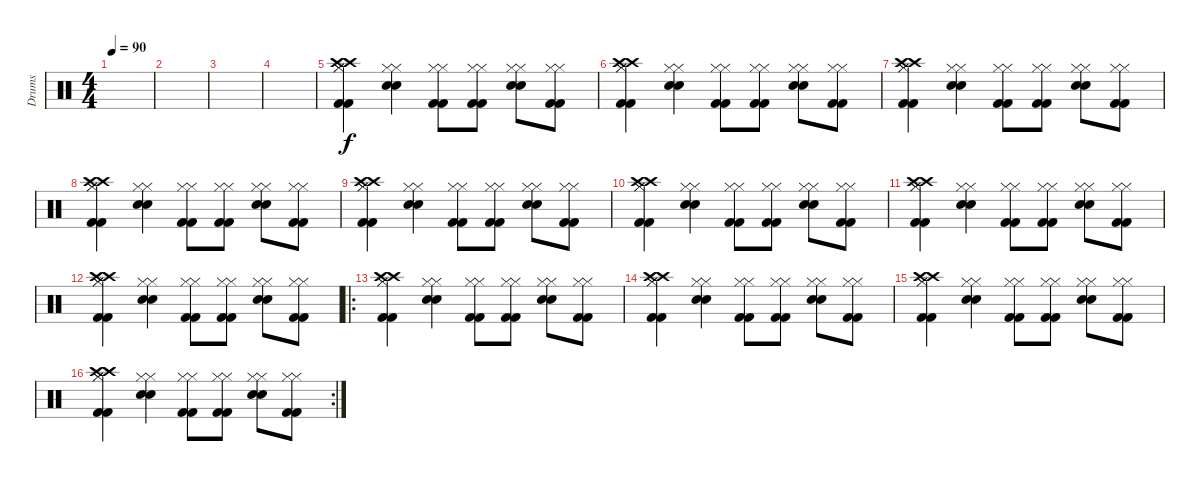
\track ("Drums" "Drums") {instrument percussion}
\staff {score}
\articulation defaults
\ts (4 4)
\tempo 90
\clef neutral
\ks c
|
|
|
|
("Crash high (hit)" "Crash high (hit)" "Hi-Hat (closed)" "Hi-Hat (closed)" "Kick (hit) 2" "Kick (hit) 2").4 ("Hi-Hat (closed)" "Hi-Hat (closed)" "Snare (hit) 2" "Snare (hit) 2").4 ("Hi-Hat (closed)" "Hi-Hat (closed)" "Kick (hit) 2" "Kick (hit) 2").8 ("Hi-Hat (closed)" "Hi-Hat (closed)" "Kick (hit) 2" "Kick (hit) 2").8 ("Hi-Hat (closed)" "Hi-Hat (closed)" "Snare (hit) 2" "Snare (hit) 2").8 ("Hi-Hat (closed)" "Hi-Hat (closed)" "Kick (hit) 2" "Kick (hit) 2").8 |
("Crash high (hit)" "Crash high (hit)" "Hi-Hat (closed)" "Hi-Hat (closed)" "Kick (hit) 2" "Kick (hit) 2").4 ("Hi-Hat (closed)" "Hi-Hat (closed)" "Snare (hit) 2" "Snare (hit) 2").4 ("Hi-Hat (closed)" "Hi-Hat (closed)" "Kick (hit) 2" "Kick (hit) 2").8 ("Hi-Hat (closed)" "Hi-Hat (closed)" "Kick (hit) 2" "Kick (hit) 2").8 ("Hi-Hat (closed)" "Hi-Hat (closed)" "Snare (hit) 2" "Snare (hit) 2").8 ("Hi-Hat (closed)" "Hi-Hat (closed)" "Kick (hit) 2" "Kick (hit) 2").8 |
("Crash high (hit)" "Crash high (hit)" "Hi-Hat (closed)" "Hi-Hat (closed)" "Kick (hit) 2" "Kick (hit) 2").4 ("Hi-Hat (closed)" "Hi-Hat (closed)" "Snare (hit) 2" "Snare (hit) 2").4 ("Hi-Hat (closed)" "Hi-Hat (closed)" "Kick (hit) 2" "Kick (hit) 2").8 ("Hi-Hat (closed)" "Hi-Hat (closed)" "Kick (hit) 2" "Kick (hit) 2").8 ("Hi-Hat (closed)" "Hi-Hat (closed)" "Snare (hit) 2" "Snare (hit) 2").8 ("Hi-Hat (closed)" "Hi-Hat (closed)" "Kick (hit) 2" "Kick (hit) 2").8 |
("Crash high (hit)" "Crash high (hit)" "Hi-Hat (closed)" "Hi-Hat (closed)" "Kick (hit) 2" "Kick (hit) 2").4 ("Hi-Hat (closed)" "Hi-Hat (closed)" "Snare (hit) 2" "Snare (hit) 2").4 ("Hi-Hat (closed)" "Hi-Hat (closed)" "Kick (hit) 2" "Kick (hit) 2").8 ("Hi-Hat (closed)" "Hi-Hat (closed)" "Kick (hit) 2" "Kick (hit) 2").8 ("Hi-Hat (closed)" "Hi-Hat (closed)" "Snare (hit) 2" "Snare (hit) 2").8 ("Hi-Hat (closed)" "Hi-Hat (closed)" "Kick (hit) 2" "Kick (hit) 2").8 |
("Crash high (hit)" "Crash high (hit)" "Hi-Hat (closed)" "Hi-Hat (closed)" "Kick (hit) 2" "Kick (hit) 2").4 ("Hi-Hat (closed)" "Hi-Hat (closed)" "Snare (hit) 2" "Snare (hit) 2").4 ("Hi-Hat (closed)" "Hi-Hat (closed)" "Kick (hit) 2" "Kick (hit) 2").8 ("Hi-Hat (closed)" "Hi-Hat (closed)" "Kick (hit) 2" "Kick (hit) 2").8 ("Hi-Hat (closed)" "Hi-Hat (closed)" "Snare (hit) 2" "Snare (hit) 2").8 ("Hi-Hat (closed)" "Hi-Hat (closed)" "Kick (hit) 2" "Kick (hit) 2").8 |
("Crash high (hit)" "Crash high (hit)" "Hi-Hat (closed)" "Hi-Hat (closed)" "Kick (hit) 2" "Kick (hit) 2").4 ("Hi-Hat (closed)" "Hi-Hat (closed)" "Snare (hit) 2" "Snare (hit) 2").4 ("Hi-Hat (closed)" "Hi-Hat (closed)" "Kick (hit) 2" "Kick (hit) 2").8 ("Hi-Hat (closed)" "Hi-Hat (closed)" "Kick (hit) 2" "Kick (hit) 2").8 ("Hi-Hat (closed)" "Hi-Hat (closed)" "Snare (hit) 2" "Snare (hit) 2").8 ("Hi-Hat (closed)" "Hi-Hat (closed)" "Kick (hit) 2" "Kick (hit) 2").8 |
("Crash high (hit)" "Crash high (hit)" "Hi-Hat (closed)" "Hi-Hat (closed)" "Kick (hit) 2" "Kick (hit) 2").4 ("Hi-Hat (closed)" "Hi-Hat (closed)" "Snare (hit) 2" "Snare (hit) 2").4 ("Hi-Hat (closed)" "Hi-Hat (closed)" "Kick (hit) 2" "Kick (hit) 2").8 ("Hi-Hat (closed)" "Hi-Hat (closed)" "Kick (hit) 2" "Kick (hit) 2").8 ("Hi-Hat (closed)" "Hi-Hat (closed)" "Snare (hit) 2" "Snare (hit) 2").8 ("Hi-Hat (closed)" "Hi-Hat (closed)" "Kick (hit) 2" "Kick (hit) 2").8 |
("Crash high (hit)" "Crash high (hit)" "Hi-Hat (closed)" "Hi-Hat (closed)" "Kick (hit) 2" "Kick (hit) 2").4 ("Hi-Hat (closed)" "Hi-Hat (closed)" "Snare (hit) 2" "Snare (hit) 2").4 ("Hi-Hat (closed)" "Hi-Hat (closed)" "Kick (hit) 2" "Kick (hit) 2").8 ("Hi-Hat (closed)" "Hi-Hat (closed)" "Kick (hit) 2" "Kick (hit) 2").8 ("Hi-Hat (closed)" "Hi-Hat (closed)" "Snare (hit) 2" "Snare (hit) 2").8 ("Hi-Hat (closed)" "Hi-Hat (closed)" "Kick (hit) 2" "Kick (hit) 2").8 |
\ro
("Crash high (hit)" "Crash high (hit)" "Hi-Hat (closed)" "Hi-Hat (closed)" "Kick (hit) 2" "Kick (hit) 2").4 ("Hi-Hat (closed)" "Hi-Hat (closed)" "Snare (hit) 2" "Snare (hit) 2").4 ("Hi-Hat (closed)" "Hi-Hat (closed)" "Kick (hit) 2" "Kick (hit) 2").8 ("Hi-Hat (closed)" "Hi-Hat (closed)" "Kick (hit) 2" "Kick (hit) 2").8 ("Hi-Hat (closed)" "Hi-Hat (closed)" "Snare (hit) 2" "Snare (hit) 2").8 ("Hi-Hat (closed)" "Hi-Hat (closed)" "Kick (hit) 2" "Kick (hit) 2").8 |
("Crash high (hit)" "Crash high (hit)" "Hi-Hat (closed)" "Hi-Hat (closed)" "Kick (hit) 2" "Kick (hit) 2").4 ("Hi-Hat (closed)" "Hi-Hat (closed)" "Snare (hit) 2" "Snare (hit) 2").4 ("Hi-Hat (closed)" "Hi-Hat (closed)" "Kick (hit) 2" "Kick (hit) 2").8 ("Hi-Hat (closed)" "Hi-Hat (closed)" "Kick (hit) 2" "Kick (hit) 2").8 ("Hi-Hat (closed)" "Hi-Hat (closed)" "Snare (hit) 2" "Snare (hit) 2").8 ("Hi-Hat (closed)" "Hi-Hat (closed)" "Kick (hit) 2" "Kick (hit) 2").8 |
("Crash high (hit)" "Crash high (hit)" "Hi-Hat (closed)" "Hi-Hat (closed)" "Kick (hit) 2" "Kick (hit) 2").4 ("Hi-Hat (closed)" "Hi-Hat (closed)" "Snare (hit) 2" "Snare (hit) 2").4 ("Hi-Hat (closed)" "Hi-Hat (closed)" "Kick (hit) 2" "Kick (hit) 2").8 ("Hi-Hat (closed)" "Hi-Hat (closed)" "Kick (hit) 2" "Kick (hit) 2").8 ("Hi-Hat (closed)" "Hi-Hat (closed)" "Snare (hit) 2" "Snare (hit) 2").8 ("Hi-Hat (closed)" "Hi-Hat (closed)" "Kick (hit) 2" "Kick (hit) 2").8 |
\rc 2
("Crash high (hit)" "Crash high (hit)" "Hi-Hat (closed)" "Hi-Hat (closed)" "Kick (hit) 2" "Kick (hit) 2").4 ("Hi-Hat (closed)" "Hi-Hat (closed)" "Snare (hit) 2" "Snare (hit) 2").4 ("Hi-Hat (closed)" "Hi-Hat (closed)" "Kick (hit) 2" "Kick (hit) 2").8 ("Hi-Hat (closed)" "Hi-Hat (closed)" "Kick (hit) 2" "Kick (hit) 2").8 ("Hi-Hat (closed)" "Hi-Hat (closed)" "Snare (hit) 2" "Snare (hit) 2").8 ("Hi-Hat (closed)" "Hi-Hat (closed)" "Kick (hit) 2" "Kick (hit) 2").8
